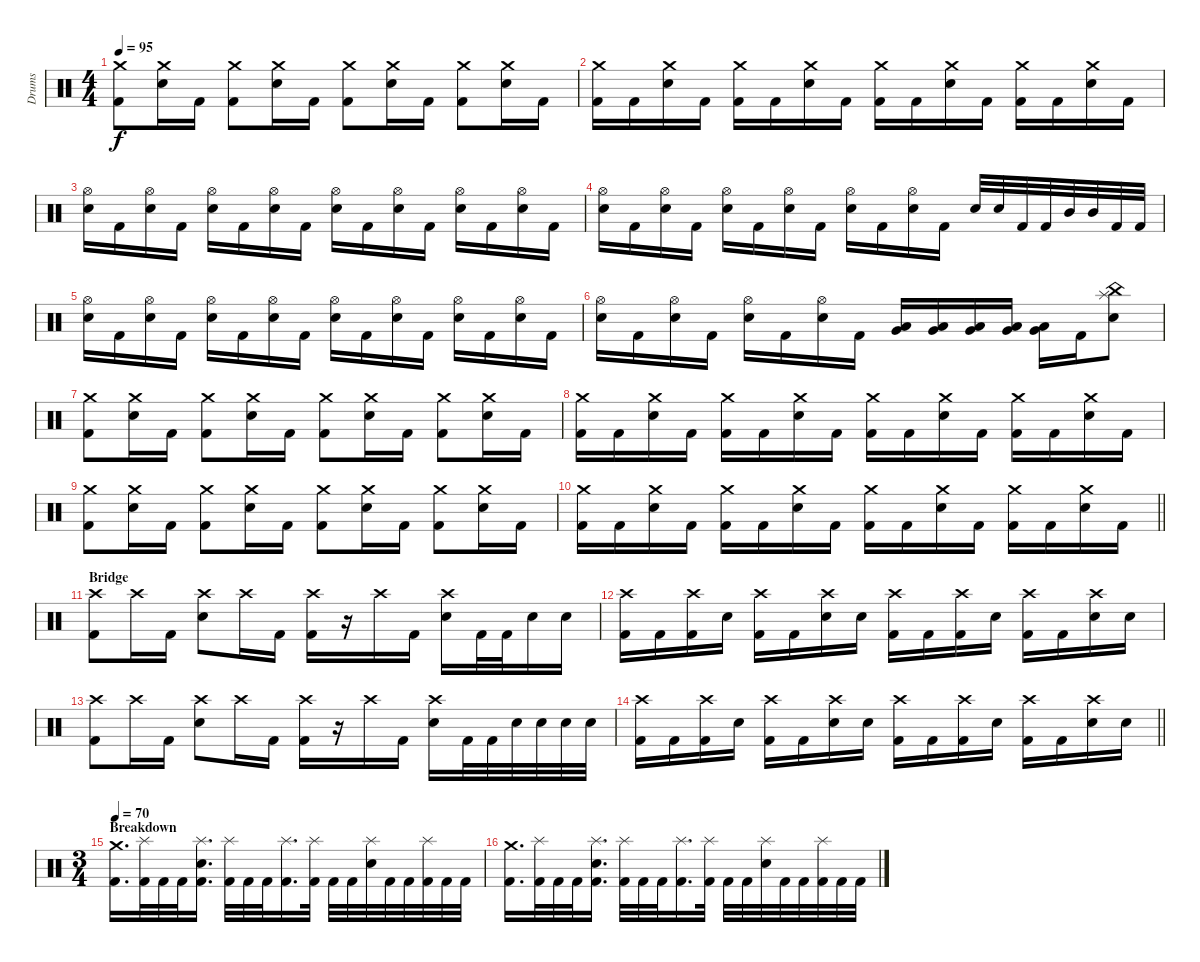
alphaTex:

\track ("Drums" "Drums") {instrument percussion}
\staff {score}
\articulation defaults
\ts (4 4)
\tempo 95
\clef neutral
\ks c
("Crash medium (hit)" "Kick (hit) 2").8{dy f} ("Crash medium (hit)" "Electric Snare (hit)").16 "Kick (hit) 2".16 ("Crash medium (hit)" "Kick (hit) 2").8 ("Crash medium (hit)" "Electric Snare (hit)").16 "Kick (hit) 2".16 ("Crash medium (hit)" "Kick (hit) 2").8 ("Crash medium (hit)" "Electric Snare (hit)").16 "Kick (hit) 2".16 ("Crash medium (hit)" "Kick (hit) 2").8 ("Crash medium (hit)" "Electric Snare (hit)").16 "Kick (hit) 2".16 |
("Crash medium (hit)" "Kick (hit) 2").16 "Kick (hit) 2".16 ("Crash medium (hit)" "Electric Snare (hit)").16 "Kick (hit) 2".16 ("Crash medium (hit)" "Kick (hit) 2").16 "Kick (hit) 2".16 ("Crash medium (hit)" "Electric Snare (hit)").16 "Kick (hit) 2".16 ("Crash medium (hit)" "Kick (hit) 2").16 "Kick (hit) 2".16 ("Crash medium (hit)" "Electric Snare (hit)").16 "Kick (hit) 2".16 ("Crash medium (hit)" "Kick (hit) 2").16 "Kick (hit) 2".16 ("Crash medium (hit)" "Electric Snare (hit)").16 "Kick (hit) 2".16 |
("Hi-Hat (open)" "Electric Snare (hit)").16 "Kick (hit) 2".16 ("Hi-Hat (open)" "Electric Snare (hit)").16 "Kick (hit) 2".16 ("Hi-Hat (open)" "Electric Snare (hit)").16 "Kick (hit) 2".16 ("Hi-Hat (open)" "Electric Snare (hit)").16 "Kick (hit) 2".16 ("Hi-Hat (open)" "Electric Snare (hit)").16 "Kick (hit) 2".16 ("Hi-Hat (open)" "Electric Snare (hit)").16 "Kick (hit) 2".16 ("Hi-Hat (open)" "Electric Snare (hit)").16 "Kick (hit) 2".16 ("Hi-Hat (open)" "Electric Snare (hit)").16 "Kick (hit) 2".16 |
("Hi-Hat (open)" "Electric Snare (hit)").16 "Kick (hit) 2".16 ("Hi-Hat (open)" "Electric Snare (hit)").16 "Kick (hit) 2".16 ("Hi-Hat (open)" "Electric Snare (hit)").16 "Kick (hit) 2".16 ("Hi-Hat (open)" "Electric Snare (hit)").16 "Kick (hit) 2".16 ("Hi-Hat (open)" "Electric Snare (hit)").16 "Kick (hit) 2".16 ("Hi-Hat (open)" "Electric Snare (hit)").16 "Kick (hit) 2".16 "Electric Snare (hit)".32 "Electric Snare (hit)".32 "Kick (hit) 2".32 "Kick (hit) 2".32 "Mid Tom (hit)".32 "Mid Tom (hit)".32 "Kick (hit) 2".32 "Kick (hit) 2".32 |
("Hi-Hat (open)" "Electric Snare (hit)").16 "Kick (hit) 2".16 ("Hi-Hat (open)" "Electric Snare (hit)").16 "Kick (hit) 2".16 ("Hi-Hat (open)" "Electric Snare (hit)").16 "Kick (hit) 2".16 ("Hi-Hat (open)" "Electric Snare (hit)").16 "Kick (hit) 2".16 ("Hi-Hat (open)" "Electric Snare (hit)").16 "Kick (hit) 2".16 ("Hi-Hat (open)" "Electric Snare (hit)").16 "Kick (hit) 2".16 ("Hi-Hat (open)" "Electric Snare (hit)").16 "Kick (hit) 2".16 ("Hi-Hat (open)" "Electric Snare (hit)").16 "Kick (hit) 2".16 |
("Hi-Hat (open)" "Electric Snare (hit)").16 "Kick (hit) 2".16 ("Hi-Hat (open)" "Electric Snare (hit)").16 "Kick (hit) 2".16 ("Hi-Hat (open)" "Electric Snare (hit)").16 "Kick (hit) 2".16 ("Hi-Hat (open)" "Electric Snare (hit)").16 "Kick (hit) 2".16 ("Very Low Tom (hit)" "Low Tom (hit)").16 ("Very Low Tom (hit)" "Low Tom (hit)").16 ("Very Low Tom (hit)" "Low Tom (hit)").16 ("Very Low Tom (hit)" "Low Tom (hit)").16 ("Very Low Tom (hit)" "Low Tom (hit)").16 "Kick (hit) 2".16 ("China (hit)" "Splash (hit)" "Electric Snare (hit)").8 |
("Crash medium (hit)" "Kick (hit) 2").8 ("Crash medium (hit)" "Electric Snare (hit)").16 "Kick (hit) 2".16 ("Crash medium (hit)" "Kick (hit) 2").8 ("Crash medium (hit)" "Electric Snare (hit)").16 "Kick (hit) 2".16 ("Crash medium (hit)" "Kick (hit) 2").8 ("Crash medium (hit)" "Electric Snare (hit)").16 "Kick (hit) 2".16 ("Crash medium (hit)" "Kick (hit) 2").8 ("Crash medium (hit)" "Electric Snare (hit)").16 "Kick (hit) 2".16 |
("Crash medium (hit)" "Kick (hit) 2").16 "Kick (hit) 2".16 ("Crash medium (hit)" "Electric Snare (hit)").16 "Kick (hit) 2".16 ("Crash medium (hit)" "Kick (hit) 2").16 "Kick (hit) 2".16 ("Crash medium (hit)" "Electric Snare (hit)").16 "Kick (hit) 2".16 ("Crash medium (hit)" "Kick (hit) 2").16 "Kick (hit) 2".16 ("Crash medium (hit)" "Electric Snare (hit)").16 "Kick (hit) 2".16 ("Crash medium (hit)" "Kick (hit) 2").16 "Kick (hit) 2".16 ("Crash medium (hit)" "Electric Snare (hit)").16 "Kick (hit) 2".16 |
("Crash medium (hit)" "Kick (hit) 2").8 ("Crash medium (hit)" "Electric Snare (hit)").16 "Kick (hit) 2".16 ("Crash medium (hit)" "Kick (hit) 2").8 ("Crash medium (hit)" "Electric Snare (hit)").16 "Kick (hit) 2".16 ("Crash medium (hit)" "Kick (hit) 2").8 ("Crash medium (hit)" "Electric Snare (hit)").16 "Kick (hit) 2".16 ("Crash medium (hit)" "Kick (hit) 2").8 ("Crash medium (hit)" "Electric Snare (hit)").16 "Kick (hit) 2".16 |
\barLineRight lightlight
("Crash medium (hit)" "Kick (hit) 2").16 "Kick (hit) 2".16 ("Crash medium (hit)" "Electric Snare (hit)").16 "Kick (hit) 2".16 ("Crash medium (hit)" "Kick (hit) 2").16 "Kick (hit) 2".16 ("Crash medium (hit)" "Electric Snare (hit)").16 "Kick (hit) 2".16 ("Crash medium (hit)" "Kick (hit) 2").16 "Kick (hit) 2".16 ("Crash medium (hit)" "Electric Snare (hit)").16 "Kick (hit) 2".16 ("Crash medium (hit)" "Kick (hit) 2").16 "Kick (hit) 2".16 ("Crash medium (hit)" "Electric Snare (hit)").16 "Kick (hit) 2".16 |
\section ("" "Bridge")
("Crash high (hit)" "Kick (hit) 2").8 "Crash high (hit)".16 "Kick (hit) 2".16 ("Crash high (hit)" "Electric Snare (hit)").8 "Crash high (hit)".16 "Kick (hit) 2".16 ("Crash high (hit)" "Kick (hit) 2").16 r.16 "Crash high (hit)".16 "Kick (hit) 2".16 ("Crash high (hit)" "Electric Snare (hit)").16 "Kick (hit) 2".32 "Kick (hit) 2".32 "Electric Snare (hit)".16 "Electric Snare (hit)".16 |
("Crash high (hit)" "Kick (hit) 2").16 "Kick (hit) 2".16 ("Crash high (hit)" "Kick (hit) 2").16 "Electric Snare (hit)".16 ("Crash high (hit)" "Kick (hit) 2").16 "Kick (hit) 2".16 ("Crash high (hit)" "Electric Snare (hit)").16 "Electric Snare (hit)".16 ("Crash high (hit)" "Kick (hit) 2").16 "Kick (hit) 2".16 ("Crash high (hit)" "Kick (hit) 2").16 "Electric Snare (hit)".16 ("Crash high (hit)" "Kick (hit) 2").16 "Kick (hit) 2".16 ("Crash high (hit)" "Electric Snare (hit)").16 "Electric Snare (hit)".16 |
("Crash high (hit)" "Kick (hit) 2").8 "Crash high (hit)".16 "Kick (hit) 2".16 ("Crash high (hit)" "Electric Snare (hit)").8 "Crash high (hit)".16 "Kick (hit) 2".16 ("Crash high (hit)" "Kick (hit) 2").16 r.16 "Crash high (hit)".16 "Kick (hit) 2".16 ("Crash high (hit)" "Electric Snare (hit)").16 "Kick (hit) 2".32 "Kick (hit) 2".32 "Electric Snare (hit)".32 "Electric Snare (hit)".32 "Electric Snare (hit)".32 "Electric Snare (hit)".32 |
\barLineRight lightlight
("Crash high (hit)" "Kick (hit) 2").16 "Kick (hit) 2".16 ("Crash high (hit)" "Kick (hit) 2").16 "Electric Snare (hit)".16 ("Crash high (hit)" "Kick (hit) 2").16 "Kick (hit) 2".16 ("Crash high (hit)" "Electric Snare (hit)").16 "Electric Snare (hit)".16 ("Crash high (hit)" "Kick (hit) 2").16 "Kick (hit) 2".16 ("Crash high (hit)" "Kick (hit) 2").16 "Electric Snare (hit)".16 ("Crash high (hit)" "Kick (hit) 2").16 "Kick (hit) 2".16 ("Crash high (hit)" "Electric Snare (hit)").16 "Electric Snare (hit)".16 |
\ts (3 4)
\section ("" "Breakdown")
\tempo 70
("Crash medium (hit)" "Kick (hit) 2").16{d} ("Splash (hit)" "Kick (hit) 2").32 "Kick (hit) 2".32 "Kick (hit) 2".32 ("Splash (hit)" "Electric Snare (hit)" "Kick (hit) 2").16{d} ("Splash (hit)" "Kick (hit) 2").32 "Kick (hit) 2".32 "Kick (hit) 2".32 ("Splash (hit)" "Kick (hit) 2").16{d} ("Splash (hit)" "Kick (hit) 2").32 "Kick (hit) 2".32 "Kick (hit) 2".32 ("Splash (hit)" "Electric Snare (hit)").32 "Kick (hit) 2".32 "Kick (hit) 2".32 ("Splash (hit)" "Kick (hit) 2").32 "Kick (hit) 2".32 "Kick (hit) 2".32 |
("Crash medium (hit)" "Kick (hit) 2").16{d} ("Splash (hit)" "Kick (hit) 2").32 "Kick (hit) 2".32 "Kick (hit) 2".32 ("Splash (hit)" "Electric Snare (hit)" "Kick (hit) 2").16{d} ("Splash (hit)" "Kick (hit) 2").32 "Kick (hit) 2".32 "Kick (hit) 2".32 ("Splash (hit)" "Kick (hit) 2").16{d} ("Splash (hit)" "Kick (hit) 2").32 "Kick (hit) 2".32 "Kick (hit) 2".32 ("Splash (hit)" "Electric Snare (hit)").32 "Kick (hit) 2".32 "Kick (hit) 2".32 ("Splash (hit)" "Kick (hit) 2").32 "Kick (hit) 2".32 "Kick (hit) 2".32
